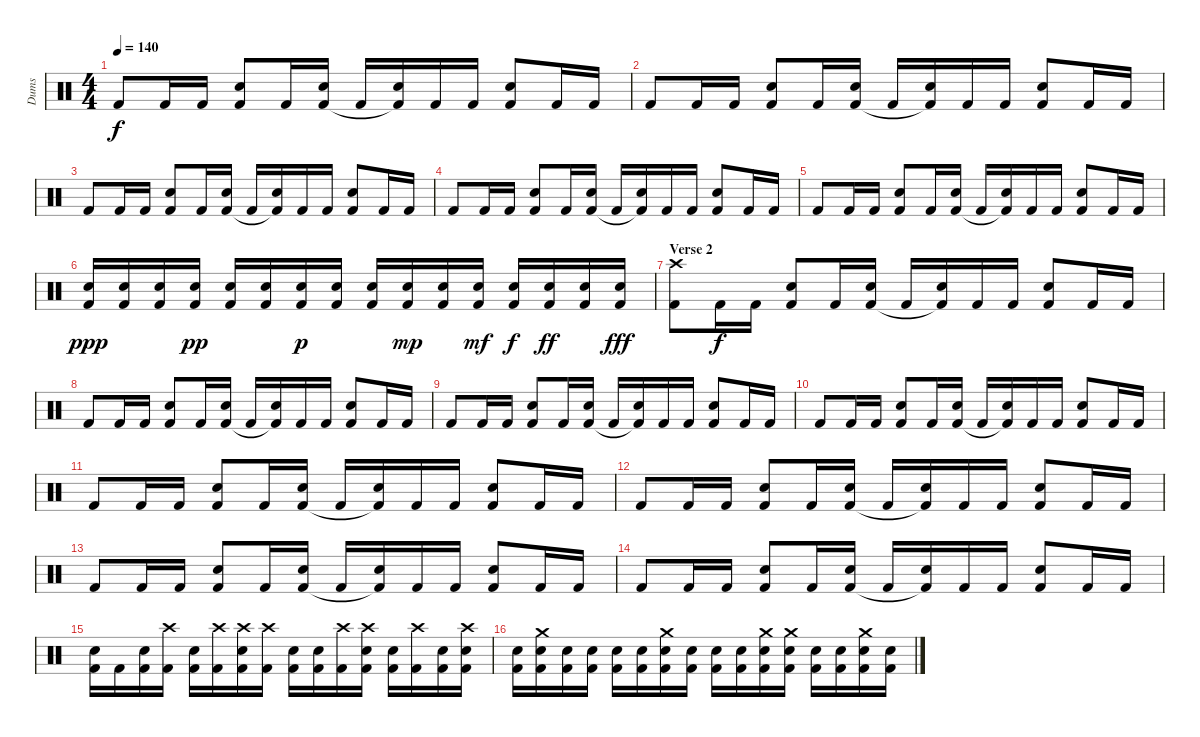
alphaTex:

\track ("Dums" "Dums") {instrument percussion}
\staff {score}
\articulation defaults
\ts (4 4)
\tempo 140
\clef neutral
\ks c "Kick (hit) 2".8{dy f} "Kick (hit) 2".16 "Kick (hit) 2".16
("Snare (hit) 2" "Kick (hit) 2").8 "Kick (hit) 2".16 ("Snare (hit) 2" "Kick (hit) 2").16 "Kick (hit) 2".16 ("Snare (hit) 2" "Kick (hit) 2"{t}).16 "Kick (hit) 2".16 "Kick (hit) 2".16 ("Snare (hit) 2" "Kick (hit) 2").8 "Kick (hit) 2".16 "Kick (hit) 2".16 |
"Kick (hit) 2".8 "Kick (hit) 2".16 "Kick (hit) 2".16 ("Snare (hit) 2" "Kick (hit) 2").8 "Kick (hit) 2".16 ("Snare (hit) 2" "Kick (hit) 2").16 "Kick (hit) 2".16 ("Snare (hit) 2" "Kick (hit) 2"{t}).16 "Kick (hit) 2".16 "Kick (hit) 2".16 ("Snare (hit) 2" "Kick (hit) 2").8 "Kick (hit) 2".16 "Kick (hit) 2".16 |
"Kick (hit) 2".8 "Kick (hit) 2".16 "Kick (hit) 2".16 ("Snare (hit) 2" "Kick (hit) 2").8 "Kick (hit) 2".16 ("Snare (hit) 2" "Kick (hit) 2").16 "Kick (hit) 2".16 ("Snare (hit) 2" "Kick (hit) 2"{t}).16 "Kick (hit) 2".16 "Kick (hit) 2".16 ("Snare (hit) 2" "Kick (hit) 2").8 "Kick (hit) 2".16 "Kick (hit) 2".16 |
"Kick (hit) 2".8 "Kick (hit) 2".16 "Kick (hit) 2".16 ("Snare (hit) 2" "Kick (hit) 2").8 "Kick (hit) 2".16 ("Snare (hit) 2" "Kick (hit) 2").16 "Kick (hit) 2".16 ("Snare (hit) 2" "Kick (hit) 2"{t}).16 "Kick (hit) 2".16 "Kick (hit) 2".16 ("Snare (hit) 2" "Kick (hit) 2").8 "Kick (hit) 2".16 "Kick (hit) 2".16 |
"Kick (hit) 2".8 "Kick (hit) 2".16 "Kick (hit) 2".16 ("Snare (hit) 2" "Kick (hit) 2").8 "Kick (hit) 2".16 ("Snare (hit) 2" "Kick (hit) 2").16 "Kick (hit) 2".16 ("Snare (hit) 2" "Kick (hit) 2"{t}).16 "Kick (hit) 2".16 "Kick (hit) 2".16 ("Snare (hit) 2" "Kick (hit) 2").8 "Kick (hit) 2".16 "Kick (hit) 2".16 |
("Snare (hit) 2" "Kick (hit) 2").16{dy ppp} ("Snare (hit) 2" "Kick (hit) 2").16 ("Snare (hit) 2" "Kick (hit) 2").16 ("Snare (hit) 2" "Kick (hit) 2").16{dy pp} ("Snare (hit) 2" "Kick (hit) 2").16 ("Snare (hit) 2" "Kick (hit) 2").16 ("Snare (hit) 2" "Kick (hit) 2").16{dy p} ("Snare (hit) 2" "Kick (hit) 2").16 ("Snare (hit) 2" "Kick (hit) 2").16 ("Snare (hit) 2" "Kick (hit) 2").16{dy mp} ("Snare (hit) 2" "Kick (hit) 2").16 ("Snare (hit) 2" "Kick (hit) 2").16{dy mf} ("Snare (hit) 2" "Kick (hit) 2").16{dy f} ("Snare (hit) 2" "Kick (hit) 2").16{dy ff} ("Snare (hit) 2" "Kick (hit) 2").16 ("Snare (hit) 2" "Kick (hit) 2").16{dy fff} |
\section ("" "Verse 2")
("Crash high (hit)" "Kick (hit) 2").8 "Kick (hit) 2".16{dy f} "Kick (hit) 2".16 ("Snare (hit) 2" "Kick (hit) 2").8 "Kick (hit) 2".16 ("Snare (hit) 2" "Kick (hit) 2").16 "Kick (hit) 2".16 ("Snare (hit) 2" "Kick (hit) 2"{t}).16 "Kick (hit) 2".16 "Kick (hit) 2".16 ("Snare (hit) 2" "Kick (hit) 2").8 "Kick (hit) 2".16 "Kick (hit) 2".16 |
"Kick (hit) 2".8 "Kick (hit) 2".16 "Kick (hit) 2".16 ("Snare (hit) 2" "Kick (hit) 2").8 "Kick (hit) 2".16 ("Snare (hit) 2" "Kick (hit) 2").16 "Kick (hit) 2".16 ("Snare (hit) 2" "Kick (hit) 2"{t}).16 "Kick (hit) 2".16 "Kick (hit) 2".16 ("Snare (hit) 2" "Kick (hit) 2").8 "Kick (hit) 2".16 "Kick (hit) 2".16 |
"Kick (hit) 2".8 "Kick (hit) 2".16 "Kick (hit) 2".16 ("Snare (hit) 2" "Kick (hit) 2").8 "Kick (hit) 2".16 ("Snare (hit) 2" "Kick (hit) 2").16 "Kick (hit) 2".16 ("Snare (hit) 2" "Kick (hit) 2"{t}).16 "Kick (hit) 2".16 "Kick (hit) 2".16 ("Snare (hit) 2" "Kick (hit) 2").8 "Kick (hit) 2".16 "Kick (hit) 2".16 |
"Kick (hit) 2".8 "Kick (hit) 2".16 "Kick (hit) 2".16 ("Snare (hit) 2" "Kick (hit) 2").8 "Kick (hit) 2".16 ("Snare (hit) 2" "Kick (hit) 2").16 "Kick (hit) 2".16 ("Snare (hit) 2" "Kick (hit) 2"{t}).16 "Kick (hit) 2".16 "Kick (hit) 2".16 ("Snare (hit) 2" "Kick (hit) 2").8 "Kick (hit) 2".16 "Kick (hit) 2".16 |
"Kick (hit) 2".8 "Kick (hit) 2".16 "Kick (hit) 2".16 ("Snare (hit) 2" "Kick (hit) 2").8 "Kick (hit) 2".16 ("Snare (hit) 2" "Kick (hit) 2").16 "Kick (hit) 2".16 ("Snare (hit) 2" "Kick (hit) 2"{t}).16 "Kick (hit) 2".16 "Kick (hit) 2".16 ("Snare (hit) 2" "Kick (hit) 2").8 "Kick (hit) 2".16 "Kick (hit) 2".16 |
"Kick (hit) 2".8 "Kick (hit) 2".16 "Kick (hit) 2".16 ("Snare (hit) 2" "Kick (hit) 2").8 "Kick (hit) 2".16 ("Snare (hit) 2" "Kick (hit) 2").16 "Kick (hit) 2".16 ("Snare (hit) 2" "Kick (hit) 2"{t}).16 "Kick (hit) 2".16 "Kick (hit) 2".16 ("Snare (hit) 2" "Kick (hit) 2").8 "Kick (hit) 2".16 "Kick (hit) 2".16 |
"Kick (hit) 2".8 "Kick (hit) 2".16 "Kick (hit) 2".16 ("Snare (hit) 2" "Kick (hit) 2").8 "Kick (hit) 2".16 ("Snare (hit) 2" "Kick (hit) 2").16 "Kick (hit) 2".16 ("Snare (hit) 2" "Kick (hit) 2"{t}).16 "Kick (hit) 2".16 "Kick (hit) 2".16 ("Snare (hit) 2" "Kick (hit) 2").8 "Kick (hit) 2".16 "Kick (hit) 2".16 |
"Kick (hit) 2".8 "Kick (hit) 2".16 "Kick (hit) 2".16 ("Snare (hit) 2" "Kick (hit) 2").8 "Kick (hit) 2".16 ("Snare (hit) 2" "Kick (hit) 2").16 "Kick (hit) 2".16 ("Snare (hit) 2" "Kick (hit) 2"{t}).16 "Kick (hit) 2".16 "Kick (hit) 2".16 ("Snare (hit) 2" "Kick (hit) 2").8 "Kick (hit) 2".16 "Kick (hit) 2".16 |
("Snare (hit) 2" "Kick (hit) 2").16 "Kick (hit) 2".16 ("Snare (hit) 2" "Kick (hit) 2").16 ("Crash high (hit)" "Kick (hit) 2").16 ("Snare (hit) 2" "Kick (hit) 2").16 ("Crash high (hit)" "Kick (hit) 2").16 ("Crash high (hit)" "Snare (hit) 2" "Kick (hit) 2").16 ("Crash high (hit)" "Kick (hit) 2").16 ("Snare (hit) 2" "Kick (hit) 2").16 ("Snare (hit) 2" "Kick (hit) 2").16 ("Crash high (hit)" "Kick (hit) 2").16 ("Crash high (hit)" "Snare (hit) 2" "Kick (hit) 2").16 ("Snare (hit) 2" "Kick (hit) 2").16 ("Crash high (hit)" "Kick (hit) 2").16 ("Snare (hit) 2" "Kick (hit) 2").16 ("Crash high (hit)" "Snare (hit) 2" "Kick (hit) 2").16 |
("Snare (hit) 2" "Kick (hit) 2").16 ("Crash medium (hit)" "Snare (hit) 2" "Kick (hit) 2").16 ("Snare (hit) 2" "Kick (hit) 2").16 ("Snare (hit) 2" "Kick (hit) 2").16 ("Snare (hit) 2" "Kick (hit) 2").16 ("Snare (hit) 2" "Kick (hit) 2").16 ("Crash medium (hit)" "Snare (hit) 2" "Kick (hit) 2").16 ("Snare (hit) 2" "Kick (hit) 2").16 ("Snare (hit) 2" "Kick (hit) 2").16 ("Snare (hit) 2" "Kick (hit) 2").16 ("Crash medium (hit)" "Snare (hit) 2" "Kick (hit) 2").16 ("Crash medium (hit)" "Snare (hit) 2" "Kick (hit) 2").16 ("Snare (hit) 2" "Kick (hit) 2").16 ("Snare (hit) 2" "Kick (hit) 2").16 ("Crash medium (hit)" "Snare (hit) 2" "Kick (hit) 2").16 ("Snare (hit) 2" "Kick (hit) 2").16
